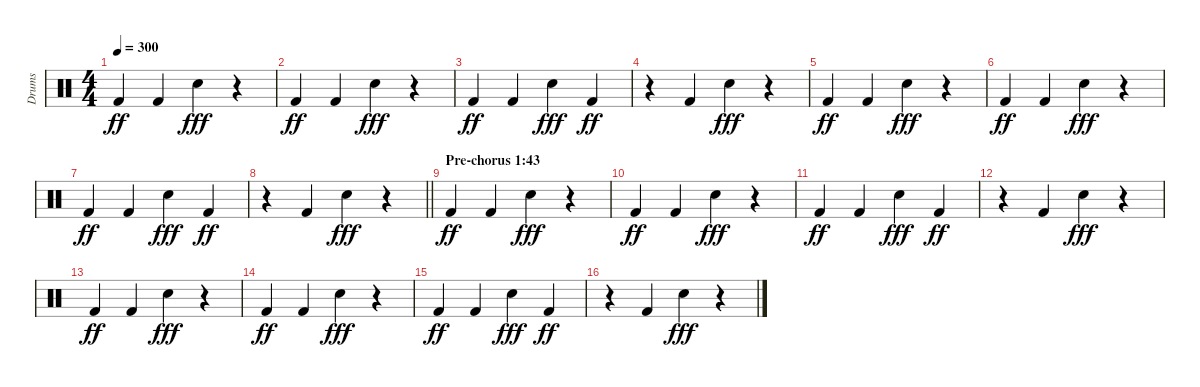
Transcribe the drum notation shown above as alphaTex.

\track ("Drums" "Drums") {instrument percussion}
\staff {score}
\articulation defaults
\ts (4 4)
\tempo 300
\clef neutral
\ks c "Kick (hit) 2".4{dy ff} "Kick (hit) 2".4 "Electric Snare (hit)".4{dy fff}
r.4 |
"Kick (hit) 2".4{dy ff} "Kick (hit) 2".4 "Electric Snare (hit)".4{dy fff} r.4 |
"Kick (hit) 2".4{dy ff} "Kick (hit) 2".4 "Electric Snare (hit)".4{dy fff} "Kick (hit) 2".4{dy ff} |
r.4 "Kick (hit) 2".4 "Electric Snare (hit)".4{dy fff} r.4 |
"Kick (hit) 2".4{dy ff} "Kick (hit) 2".4 "Electric Snare (hit)".4{dy fff} r.4 |
"Kick (hit) 2".4{dy ff} "Kick (hit) 2".4 "Electric Snare (hit)".4{dy fff} r.4 |
"Kick (hit) 2".4{dy ff} "Kick (hit) 2".4 "Electric Snare (hit)".4{dy fff} "Kick (hit) 2".4{dy ff} |
\barLineRight lightlight
r.4 "Kick (hit) 2".4 "Electric Snare (hit)".4{dy fff} r.4 |
\section ("" "Pre-chorus 1:43")
"Kick (hit) 2".4{dy ff} "Kick (hit) 2".4 "Electric Snare (hit)".4{dy fff} r.4 |
"Kick (hit) 2".4{dy ff} "Kick (hit) 2".4 "Electric Snare (hit)".4{dy fff} r.4 |
"Kick (hit) 2".4{dy ff} "Kick (hit) 2".4 "Electric Snare (hit)".4{dy fff} "Kick (hit) 2".4{dy ff} |
r.4 "Kick (hit) 2".4 "Electric Snare (hit)".4{dy fff} r.4 |
"Kick (hit) 2".4{dy ff} "Kick (hit) 2".4 "Electric Snare (hit)".4{dy fff} r.4 |
"Kick (hit) 2".4{dy ff} "Kick (hit) 2".4 "Electric Snare (hit)".4{dy fff} r.4 |
"Kick (hit) 2".4{dy ff} "Kick (hit) 2".4 "Electric Snare (hit)".4{dy fff} "Kick (hit) 2".4{dy ff} |
r.4 "Kick (hit) 2".4 "Electric Snare (hit)".4{dy fff} r.4
